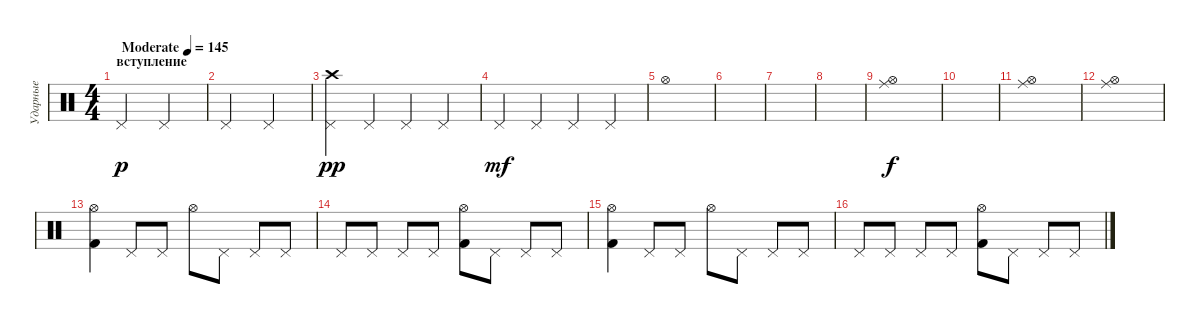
\track ("Ударные" "Ударные") {instrument percussion}
\staff {score}
\articulation defaults
\ts (4 4)
\section ("" "вступление")
\tempo (145 "Moderate")
\clef neutral
\ks c "Pedal Hi-Hat (hit)".2{dy p} "Pedal Hi-Hat (hit)".2
|
"Pedal Hi-Hat (hit)".2 "Pedal Hi-Hat (hit)".2 |
("Pedal Hi-Hat (hit)" "Crash high (hit)").4{dy pp} "Pedal Hi-Hat (hit)".4 "Pedal Hi-Hat (hit)".4 "Pedal Hi-Hat (hit)".4 |
"Pedal Hi-Hat (hit)".4{dy mf} "Pedal Hi-Hat (hit)".4 "Pedal Hi-Hat (hit)".4 "Pedal Hi-Hat (hit)".4 |
"Hi-Hat (open)".1 |
|
|
|
("Ride (middle)" "Hi-Hat (open)").1{dy f} |
|
("Ride (middle)" "Hi-Hat (open)").1 |
("Ride (middle)" "Hi-Hat (open)").1 |
("Hi-Hat (open)" "Kick (hit) 2").4 "Pedal Hi-Hat (hit)".8 "Pedal Hi-Hat (hit)".8 "Hi-Hat (open)".8 "Pedal Hi-Hat (hit)".8 "Pedal Hi-Hat (hit)".8 "Pedal Hi-Hat (hit)".8 |
"Pedal Hi-Hat (hit)".8 "Pedal Hi-Hat (hit)".8 "Pedal Hi-Hat (hit)".8 "Pedal Hi-Hat (hit)".8 ("Hi-Hat (open)" "Kick (hit) 2").8 "Pedal Hi-Hat (hit)".8 "Pedal Hi-Hat (hit)".8 "Pedal Hi-Hat (hit)".8 |
("Hi-Hat (open)" "Kick (hit) 2").4 "Pedal Hi-Hat (hit)".8 "Pedal Hi-Hat (hit)".8 "Hi-Hat (open)".8 "Pedal Hi-Hat (hit)".8 "Pedal Hi-Hat (hit)".8 "Pedal Hi-Hat (hit)".8 |
"Pedal Hi-Hat (hit)".8 "Pedal Hi-Hat (hit)".8 "Pedal Hi-Hat (hit)".8 "Pedal Hi-Hat (hit)".8 ("Hi-Hat (open)" "Kick (hit) 2").8 "Pedal Hi-Hat (hit)".8 "Pedal Hi-Hat (hit)".8 "Pedal Hi-Hat (hit)".8
